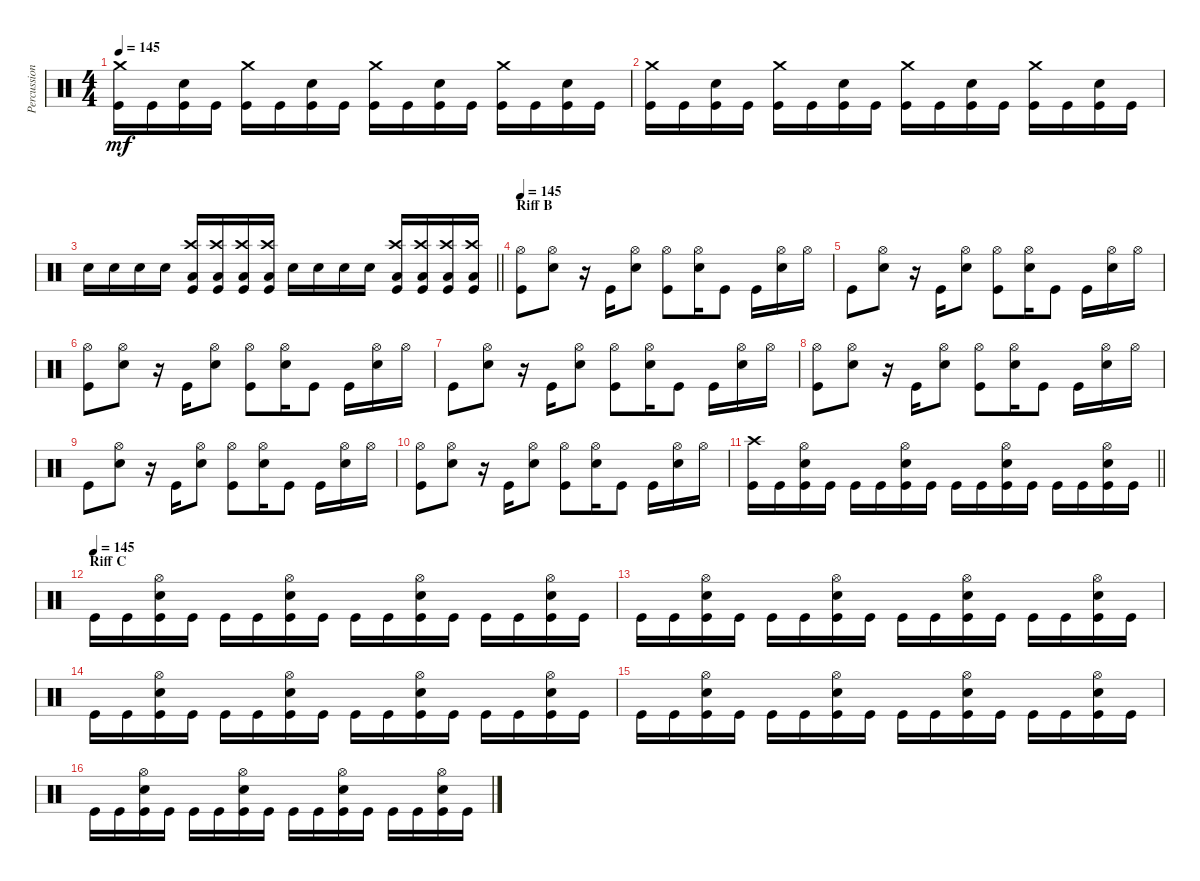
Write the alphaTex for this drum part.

\track ("Percussion" "Percussion") {instrument percussion}
\staff {score}
\articulation defaults
\ts (4 4)
\tempo 145
\clef neutral
\ks c
("Crash medium (hit)" "Kick (hit)").16{dy mf} "Kick (hit)".16 ("Snare (hit) 2" "Kick (hit)").16 "Kick (hit)".16 ("Crash medium (hit)" "Kick (hit)").16 "Kick (hit)".16 ("Snare (hit) 2" "Kick (hit)").16 "Kick (hit)".16 ("Crash medium (hit)" "Kick (hit)").16 "Kick (hit)".16 ("Snare (hit) 2" "Kick (hit)").16 "Kick (hit)".16 ("Crash medium (hit)" "Kick (hit)").16 "Kick (hit)".16 ("Snare (hit) 2" "Kick (hit)").16 "Kick (hit)".16 |
("Crash medium (hit)" "Kick (hit)").16 "Kick (hit)".16 ("Snare (hit) 2" "Kick (hit)").16 "Kick (hit)".16 ("Crash medium (hit)" "Kick (hit)").16 "Kick (hit)".16 ("Snare (hit) 2" "Kick (hit)").16 "Kick (hit)".16 ("Crash medium (hit)" "Kick (hit)").16 "Kick (hit)".16 ("Snare (hit) 2" "Kick (hit)").16 "Kick (hit)".16 ("Crash medium (hit)" "Kick (hit)").16 "Kick (hit)".16 ("Snare (hit) 2" "Kick (hit)").16 "Kick (hit)".16 |
\barLineRight lightlight "Snare (hit) 2".16 "Snare (hit) 2".16 "Snare (hit) 2".16 "Snare (hit) 2".16
("Crash high (hit)" "Low Floor Tom (hit)" "Kick (hit)").16 ("Crash high (hit)" "Low Floor Tom (hit)" "Kick (hit)").16 ("Crash high (hit)" "Low Floor Tom (hit)" "Kick (hit)").16 ("Crash high (hit)" "Low Floor Tom (hit)" "Kick (hit)").16 "Snare (hit) 2".16 "Snare (hit) 2".16 "Snare (hit) 2".16 "Snare (hit) 2".16 ("Crash high (hit)" "Low Floor Tom (hit)" "Kick (hit)").16 ("Crash high (hit)" "Low Floor Tom (hit)" "Kick (hit)").16 ("Crash high (hit)" "Low Floor Tom (hit)" "Kick (hit)").16 ("Crash high (hit)" "Low Floor Tom (hit)" "Kick (hit)").16 |
\section ("" "Riff B")
\tempo 145
("Hi-Hat (open)" "Kick (hit)").8 ("Snare (hit) 2" "Hi-Hat (open)").8 r.16 "Kick (hit)".16 ("Snare (hit) 2" "Hi-Hat (open)").8 ("Hi-Hat (open)" "Kick (hit)").8 ("Snare (hit) 2" "Hi-Hat (open)").16 "Kick (hit)".8 "Kick (hit)".16 ("Snare (hit) 2" "Hi-Hat (open)").16 "Hi-Hat (open)".16 |
"Kick (hit)".8 ("Snare (hit) 2" "Hi-Hat (open)").8 r.16 "Kick (hit)".16 ("Snare (hit) 2" "Hi-Hat (open)").8 ("Hi-Hat (open)" "Kick (hit)").8 ("Snare (hit) 2" "Hi-Hat (open)").16 "Kick (hit)".8 "Kick (hit)".16 ("Snare (hit) 2" "Hi-Hat (open)").16 "Hi-Hat (open)".16 |
("Hi-Hat (open)" "Kick (hit)").8 ("Snare (hit) 2" "Hi-Hat (open)").8 r.16 "Kick (hit)".16 ("Snare (hit) 2" "Hi-Hat (open)").8 ("Hi-Hat (open)" "Kick (hit)").8 ("Snare (hit) 2" "Hi-Hat (open)").16 "Kick (hit)".8 "Kick (hit)".16 ("Snare (hit) 2" "Hi-Hat (open)").16 "Hi-Hat (open)".16 |
"Kick (hit)".8 ("Snare (hit) 2" "Hi-Hat (open)").8 r.16 "Kick (hit)".16 ("Snare (hit) 2" "Hi-Hat (open)").8 ("Hi-Hat (open)" "Kick (hit)").8 ("Snare (hit) 2" "Hi-Hat (open)").16 "Kick (hit)".8 "Kick (hit)".16 ("Snare (hit) 2" "Hi-Hat (open)").16 "Hi-Hat (open)".16 |
("Hi-Hat (open)" "Kick (hit)").8 ("Snare (hit) 2" "Hi-Hat (open)").8 r.16 "Kick (hit)".16 ("Snare (hit) 2" "Hi-Hat (open)").8 ("Hi-Hat (open)" "Kick (hit)").8 ("Snare (hit) 2" "Hi-Hat (open)").16 "Kick (hit)".8 "Kick (hit)".16 ("Snare (hit) 2" "Hi-Hat (open)").16 "Hi-Hat (open)".16 |
"Kick (hit)".8 ("Snare (hit) 2" "Hi-Hat (open)").8 r.16 "Kick (hit)".16 ("Snare (hit) 2" "Hi-Hat (open)").8 ("Hi-Hat (open)" "Kick (hit)").8 ("Snare (hit) 2" "Hi-Hat (open)").16 "Kick (hit)".8 "Kick (hit)".16 ("Snare (hit) 2" "Hi-Hat (open)").16 "Hi-Hat (open)".16 |
("Hi-Hat (open)" "Kick (hit)").8 ("Snare (hit) 2" "Hi-Hat (open)").8 r.16 "Kick (hit)".16 ("Snare (hit) 2" "Hi-Hat (open)").8 ("Hi-Hat (open)" "Kick (hit)").8 ("Snare (hit) 2" "Hi-Hat (open)").16 "Kick (hit)".8 "Kick (hit)".16 ("Snare (hit) 2" "Hi-Hat (open)").16 "Hi-Hat (open)".16 |
\barLineRight lightlight
("Crash high (hit)" "Kick (hit)").16 "Kick (hit)".16 ("Snare (hit) 2" "Hi-Hat (open)" "Kick (hit)").16 "Kick (hit)".16 "Kick (hit)".16 "Kick (hit)".16 ("Snare (hit) 2" "Hi-Hat (open)" "Kick (hit)").16 "Kick (hit)".16 "Kick (hit)".16 "Kick (hit)".16 ("Snare (hit) 2" "Hi-Hat (open)" "Kick (hit)").16 "Kick (hit)".16 "Kick (hit)".16 "Kick (hit)".16 ("Snare (hit) 2" "Hi-Hat (open)" "Kick (hit)").16 "Kick (hit)".16 |
\section ("" "Riff C")
\tempo (145)
"Kick (hit)".16 "Kick (hit)".16 ("Snare (hit) 2" "Hi-Hat (open)" "Kick (hit)").16 "Kick (hit)".16 "Kick (hit)".16 "Kick (hit)".16 ("Snare (hit) 2" "Hi-Hat (open)" "Kick (hit)").16 "Kick (hit)".16 "Kick (hit)".16 "Kick (hit)".16 ("Snare (hit) 2" "Hi-Hat (open)" "Kick (hit)").16 "Kick (hit)".16 "Kick (hit)".16 "Kick (hit)".16 ("Snare (hit) 2" "Hi-Hat (open)" "Kick (hit)").16 "Kick (hit)".16 |
"Kick (hit)".16 "Kick (hit)".16 ("Snare (hit) 2" "Hi-Hat (open)" "Kick (hit)").16 "Kick (hit)".16 "Kick (hit)".16 "Kick (hit)".16 ("Snare (hit) 2" "Hi-Hat (open)" "Kick (hit)").16 "Kick (hit)".16 "Kick (hit)".16 "Kick (hit)".16 ("Snare (hit) 2" "Hi-Hat (open)" "Kick (hit)").16 "Kick (hit)".16 "Kick (hit)".16 "Kick (hit)".16 ("Snare (hit) 2" "Hi-Hat (open)" "Kick (hit)").16 "Kick (hit)".16 |
"Kick (hit)".16 "Kick (hit)".16 ("Snare (hit) 2" "Hi-Hat (open)" "Kick (hit)").16 "Kick (hit)".16 "Kick (hit)".16 "Kick (hit)".16 ("Snare (hit) 2" "Hi-Hat (open)" "Kick (hit)").16 "Kick (hit)".16 "Kick (hit)".16 "Kick (hit)".16 ("Snare (hit) 2" "Hi-Hat (open)" "Kick (hit)").16 "Kick (hit)".16 "Kick (hit)".16 "Kick (hit)".16 ("Snare (hit) 2" "Hi-Hat (open)" "Kick (hit)").16 "Kick (hit)".16 |
"Kick (hit)".16 "Kick (hit)".16 ("Snare (hit) 2" "Hi-Hat (open)" "Kick (hit)").16 "Kick (hit)".16 "Kick (hit)".16 "Kick (hit)".16 ("Snare (hit) 2" "Hi-Hat (open)" "Kick (hit)").16 "Kick (hit)".16 "Kick (hit)".16 "Kick (hit)".16 ("Snare (hit) 2" "Hi-Hat (open)" "Kick (hit)").16 "Kick (hit)".16 "Kick (hit)".16 "Kick (hit)".16 ("Snare (hit) 2" "Hi-Hat (open)" "Kick (hit)").16 "Kick (hit)".16 |
"Kick (hit)".16 "Kick (hit)".16 ("Snare (hit) 2" "Hi-Hat (open)" "Kick (hit)").16 "Kick (hit)".16 "Kick (hit)".16 "Kick (hit)".16 ("Snare (hit) 2" "Hi-Hat (open)" "Kick (hit)").16 "Kick (hit)".16 "Kick (hit)".16 "Kick (hit)".16 ("Snare (hit) 2" "Hi-Hat (open)" "Kick (hit)").16 "Kick (hit)".16 "Kick (hit)".16 "Kick (hit)".16 ("Snare (hit) 2" "Hi-Hat (open)" "Kick (hit)").16 "Kick (hit)".16
